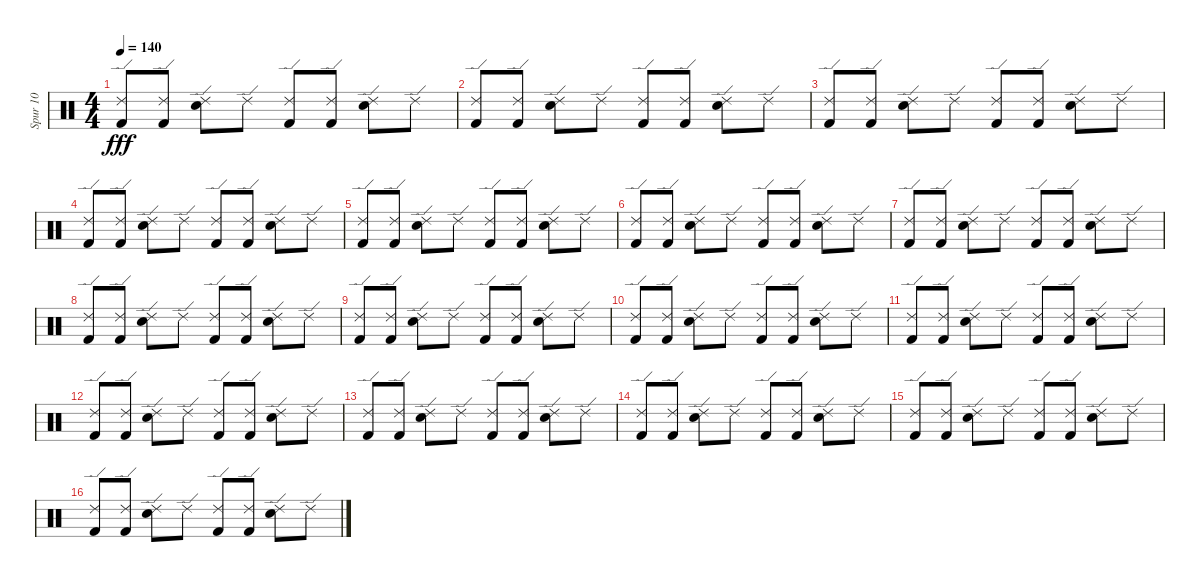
\track ("Spur 10" "Spur 10") {instrument percussion}
\staff {score}
\articulation defaults
\ts (4 4)
\tempo 140
\clef neutral
\ks c
("Ride (edge) 2" "Kick (hit) 2").8{dy fff} ("Ride (edge) 2" "Kick (hit) 2").8 ("Ride (edge) 2" "Electric Snare (hit)").8 "Ride (edge) 2".8 ("Ride (edge) 2" "Kick (hit) 2").8 ("Ride (edge) 2" "Kick (hit) 2").8 ("Ride (edge) 2" "Electric Snare (hit)").8 "Ride (edge) 2".8 |
("Ride (edge) 2" "Kick (hit) 2").8 ("Ride (edge) 2" "Kick (hit) 2").8 ("Ride (edge) 2" "Electric Snare (hit)").8 "Ride (edge) 2".8 ("Ride (edge) 2" "Kick (hit) 2").8 ("Ride (edge) 2" "Kick (hit) 2").8 ("Ride (edge) 2" "Electric Snare (hit)").8 "Ride (edge) 2".8 |
("Ride (edge) 2" "Kick (hit) 2").8 ("Ride (edge) 2" "Kick (hit) 2").8 ("Ride (edge) 2" "Electric Snare (hit)").8 "Ride (edge) 2".8 ("Ride (edge) 2" "Kick (hit) 2").8 ("Ride (edge) 2" "Kick (hit) 2").8 ("Ride (edge) 2" "Electric Snare (hit)").8 "Ride (edge) 2".8 |
("Ride (edge) 2" "Kick (hit) 2").8 ("Ride (edge) 2" "Kick (hit) 2").8 ("Ride (edge) 2" "Electric Snare (hit)").8 "Ride (edge) 2".8 ("Ride (edge) 2" "Kick (hit) 2").8 ("Ride (edge) 2" "Kick (hit) 2").8 ("Ride (edge) 2" "Electric Snare (hit)").8 "Ride (edge) 2".8 |
("Ride (edge) 2" "Kick (hit) 2").8 ("Ride (edge) 2" "Kick (hit) 2").8 ("Ride (edge) 2" "Electric Snare (hit)").8 "Ride (edge) 2".8 ("Ride (edge) 2" "Kick (hit) 2").8 ("Ride (edge) 2" "Kick (hit) 2").8 ("Ride (edge) 2" "Electric Snare (hit)").8 "Ride (edge) 2".8 |
("Ride (edge) 2" "Kick (hit) 2").8 ("Ride (edge) 2" "Kick (hit) 2").8 ("Ride (edge) 2" "Electric Snare (hit)").8 "Ride (edge) 2".8 ("Ride (edge) 2" "Kick (hit) 2").8 ("Ride (edge) 2" "Kick (hit) 2").8 ("Ride (edge) 2" "Electric Snare (hit)").8 "Ride (edge) 2".8 |
("Ride (edge) 2" "Kick (hit) 2").8 ("Ride (edge) 2" "Kick (hit) 2").8 ("Ride (edge) 2" "Electric Snare (hit)").8 "Ride (edge) 2".8 ("Ride (edge) 2" "Kick (hit) 2").8 ("Ride (edge) 2" "Kick (hit) 2").8 ("Ride (edge) 2" "Electric Snare (hit)").8 "Ride (edge) 2".8 |
("Ride (edge) 2" "Kick (hit) 2").8 ("Ride (edge) 2" "Kick (hit) 2").8 ("Ride (edge) 2" "Electric Snare (hit)").8 "Ride (edge) 2".8 ("Ride (edge) 2" "Kick (hit) 2").8 ("Ride (edge) 2" "Kick (hit) 2").8 ("Ride (edge) 2" "Electric Snare (hit)").8 "Ride (edge) 2".8 |
("Ride (edge) 2" "Kick (hit) 2").8 ("Ride (edge) 2" "Kick (hit) 2").8 ("Ride (edge) 2" "Electric Snare (hit)").8 "Ride (edge) 2".8 ("Ride (edge) 2" "Kick (hit) 2").8 ("Ride (edge) 2" "Kick (hit) 2").8 ("Ride (edge) 2" "Electric Snare (hit)").8 "Ride (edge) 2".8 |
("Ride (edge) 2" "Kick (hit) 2").8 ("Ride (edge) 2" "Kick (hit) 2").8 ("Ride (edge) 2" "Electric Snare (hit)").8 "Ride (edge) 2".8 ("Ride (edge) 2" "Kick (hit) 2").8 ("Ride (edge) 2" "Kick (hit) 2").8 ("Ride (edge) 2" "Electric Snare (hit)").8 "Ride (edge) 2".8 |
("Ride (edge) 2" "Kick (hit) 2").8 ("Ride (edge) 2" "Kick (hit) 2").8 ("Ride (edge) 2" "Electric Snare (hit)").8 "Ride (edge) 2".8 ("Ride (edge) 2" "Kick (hit) 2").8 ("Ride (edge) 2" "Kick (hit) 2").8 ("Ride (edge) 2" "Electric Snare (hit)").8 "Ride (edge) 2".8 |
("Ride (edge) 2" "Kick (hit) 2").8 ("Ride (edge) 2" "Kick (hit) 2").8 ("Ride (edge) 2" "Electric Snare (hit)").8 "Ride (edge) 2".8 ("Ride (edge) 2" "Kick (hit) 2").8 ("Ride (edge) 2" "Kick (hit) 2").8 ("Ride (edge) 2" "Electric Snare (hit)").8 "Ride (edge) 2".8 |
("Ride (edge) 2" "Kick (hit) 2").8 ("Ride (edge) 2" "Kick (hit) 2").8 ("Ride (edge) 2" "Electric Snare (hit)").8 "Ride (edge) 2".8 ("Ride (edge) 2" "Kick (hit) 2").8 ("Ride (edge) 2" "Kick (hit) 2").8 ("Ride (edge) 2" "Electric Snare (hit)").8 "Ride (edge) 2".8 |
("Ride (edge) 2" "Kick (hit) 2").8 ("Ride (edge) 2" "Kick (hit) 2").8 ("Ride (edge) 2" "Electric Snare (hit)").8 "Ride (edge) 2".8 ("Ride (edge) 2" "Kick (hit) 2").8 ("Ride (edge) 2" "Kick (hit) 2").8 ("Ride (edge) 2" "Electric Snare (hit)").8 "Ride (edge) 2".8 |
("Ride (edge) 2" "Kick (hit) 2").8 ("Ride (edge) 2" "Kick (hit) 2").8 ("Ride (edge) 2" "Electric Snare (hit)").8 "Ride (edge) 2".8 ("Ride (edge) 2" "Kick (hit) 2").8 ("Ride (edge) 2" "Kick (hit) 2").8 ("Ride (edge) 2" "Electric Snare (hit)").8 "Ride (edge) 2".8 |
("Ride (edge) 2" "Kick (hit) 2").8 ("Ride (edge) 2" "Kick (hit) 2").8 ("Ride (edge) 2" "Electric Snare (hit)").8 "Ride (edge) 2".8 ("Ride (edge) 2" "Kick (hit) 2").8 ("Ride (edge) 2" "Kick (hit) 2").8 ("Ride (edge) 2" "Electric Snare (hit)").8 "Ride (edge) 2".8
